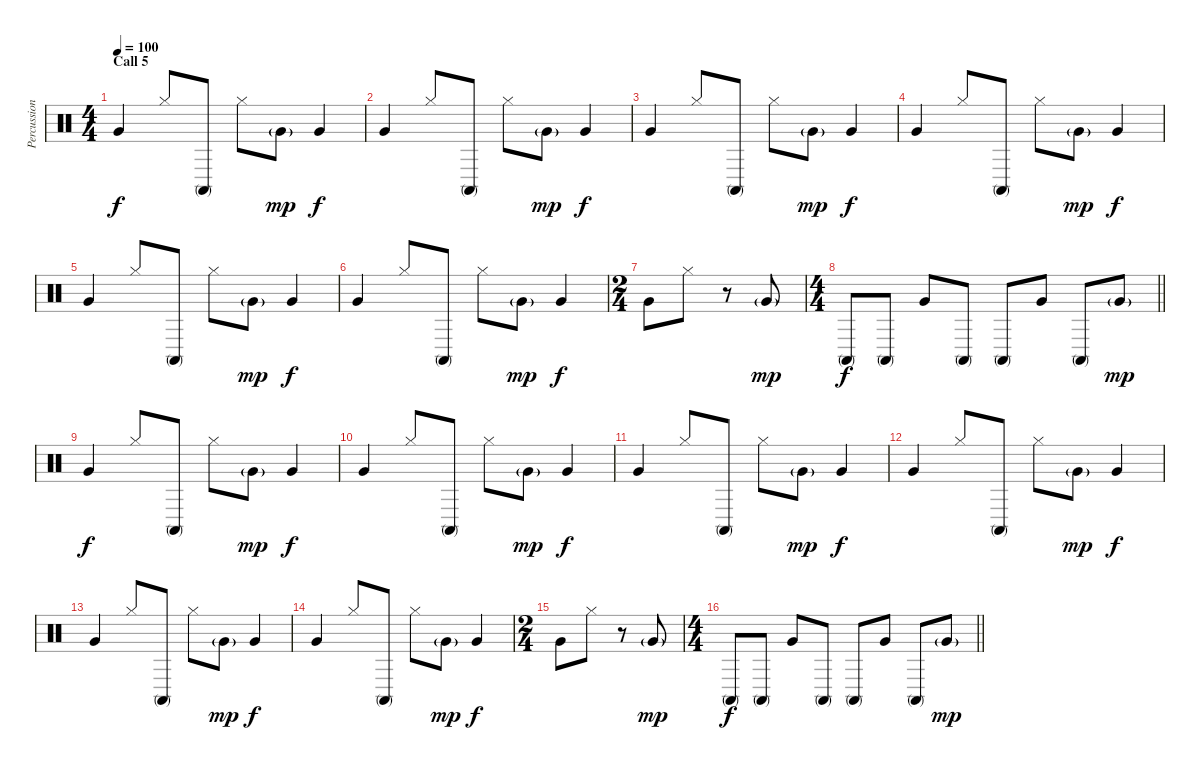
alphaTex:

\track ("Percussion" "Percussion") {instrument percussion}
\staff {score}
\articulation defaults
\ts (4 4)
\section ("" "Call 5")
\tempo 100
\clef neutral
\ks c "Very Low Tom (hit)".4{dy f} "Hi-Hat (closed)".8 "Conga high (mute)".8 "Hi-Hat (closed)".8 "Very Low Tom (hit)"{g}.8{dy mp} "Very Low Tom (hit)".4{dy f}
|
"Very Low Tom (hit)".4 "Hi-Hat (closed)".8 "Conga high (mute)".8 "Hi-Hat (closed)".8 "Very Low Tom (hit)"{g}.8{dy mp} "Very Low Tom (hit)".4{dy f} |
"Very Low Tom (hit)".4 "Hi-Hat (closed)".8 "Conga high (mute)".8 "Hi-Hat (closed)".8 "Very Low Tom (hit)"{g}.8{dy mp} "Very Low Tom (hit)".4{dy f} |
"Very Low Tom (hit)".4 "Hi-Hat (closed)".8 "Conga high (mute)".8 "Hi-Hat (closed)".8 "Very Low Tom (hit)"{g}.8{dy mp} "Very Low Tom (hit)".4{dy f} |
"Very Low Tom (hit)".4 "Hi-Hat (closed)".8 "Conga high (mute)".8 "Hi-Hat (closed)".8 "Very Low Tom (hit)"{g}.8{dy mp} "Very Low Tom (hit)".4{dy f} |
"Very Low Tom (hit)".4 "Hi-Hat (closed)".8 "Conga high (mute)".8 "Hi-Hat (closed)".8 "Very Low Tom (hit)"{g}.8{dy mp} "Very Low Tom (hit)".4{dy f} |
\ts (2 4)
"Very Low Tom (hit)".8 "Hi-Hat (closed)".8 r.8 "Very Low Tom (hit)"{g}.8{dy mp} |
\ts (4 4)
\barLineRight lightlight "Conga high (mute)".8{dy f} "Conga high (mute)".8 "Very Low Tom (hit)".8 "Conga high (mute)".8 "Conga high (mute)".8 "Very Low Tom (hit)".8 "Conga high (mute)".8 "Very Low Tom (hit)"{g}.8{dy mp}
|
"Very Low Tom (hit)".4{dy f} "Hi-Hat (closed)".8 "Conga high (mute)".8 "Hi-Hat (closed)".8 "Very Low Tom (hit)"{g}.8{dy mp} "Very Low Tom (hit)".4{dy f} |
"Very Low Tom (hit)".4 "Hi-Hat (closed)".8 "Conga high (mute)".8 "Hi-Hat (closed)".8 "Very Low Tom (hit)"{g}.8{dy mp} "Very Low Tom (hit)".4{dy f} |
"Very Low Tom (hit)".4 "Hi-Hat (closed)".8 "Conga high (mute)".8 "Hi-Hat (closed)".8 "Very Low Tom (hit)"{g}.8{dy mp} "Very Low Tom (hit)".4{dy f} |
"Very Low Tom (hit)".4 "Hi-Hat (closed)".8 "Conga high (mute)".8 "Hi-Hat (closed)".8 "Very Low Tom (hit)"{g}.8{dy mp} "Very Low Tom (hit)".4{dy f} |
"Very Low Tom (hit)".4 "Hi-Hat (closed)".8 "Conga high (mute)".8 "Hi-Hat (closed)".8 "Very Low Tom (hit)"{g}.8{dy mp} "Very Low Tom (hit)".4{dy f} |
"Very Low Tom (hit)".4 "Hi-Hat (closed)".8 "Conga high (mute)".8 "Hi-Hat (closed)".8 "Very Low Tom (hit)"{g}.8{dy mp} "Very Low Tom (hit)".4{dy f} |
\ts (2 4)
"Very Low Tom (hit)".8 "Hi-Hat (closed)".8 r.8 "Very Low Tom (hit)"{g}.8{dy mp} |
\ts (4 4)
\barLineRight lightlight "Conga high (mute)".8{dy f} "Conga high (mute)".8 "Very Low Tom (hit)".8 "Conga high (mute)".8 "Conga high (mute)".8 "Very Low Tom (hit)".8 "Conga high (mute)".8 "Very Low Tom (hit)"{g}.8{dy mp}
